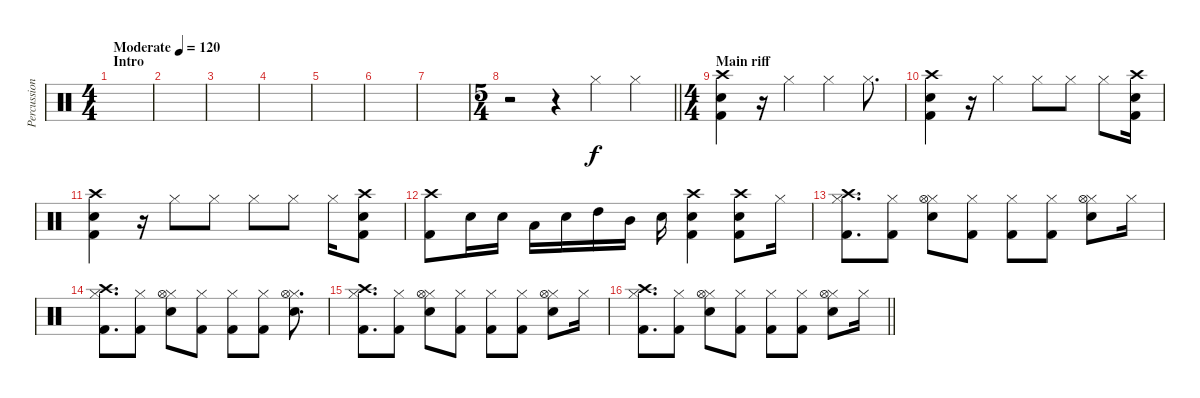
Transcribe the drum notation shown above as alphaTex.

\track ("Percussion" "Percussion") {instrument percussion}
\staff {score}
\articulation defaults
\ts (4 4)
\section ("" "Intro")
\tempo (120 "Moderate")
\clef neutral
\ks c
|
|
|
|
|
|
|
\ts (5 4)
\barLineRight lightlight
r.2 r.4 "Hi-Hat (closed)".4 "Hi-Hat (closed)".4 |
\ts (4 4)
\section ("" "Main riff")
("Crash high (hit)" "Electric Snare (hit)" "Kick (hit) 2").4 r.16 "Hi-Hat (closed)".4 "Hi-Hat (closed)".4 "Hi-Hat (closed)".8{d} |
("Electric Snare (hit)" "Crash high (hit)" "Kick (hit) 2").4 r.16 "Hi-Hat (closed)".4 "Hi-Hat (closed)".8 "Hi-Hat (closed)".8 "Hi-Hat (closed)".8 ("Crash high (hit)" "Electric Snare (hit)" "Kick (hit) 2").16 |
("Crash high (hit)" "Electric Snare (hit)" "Kick (hit) 2").4 r.16 "Hi-Hat (closed)".8 "Hi-Hat (closed)".8 "Hi-Hat (closed)".8 "Hi-Hat (closed)".8 "Hi-Hat (closed)".16 ("Electric Snare (hit)" "Crash high (hit)" "Kick (hit) 2").8 |
("Crash high (hit)" "Kick (hit) 2").8 "Electric Snare (hit)".16 "Electric Snare (hit)".16 "Low Tom (hit)".16 "Electric Snare (hit)".16 "High Tom (hit)".16 "Mid Tom (hit)".16 "Electric Snare (hit)".16 ("Crash high (hit)" "Electric Snare (hit)" "Kick (hit) 2").4 ("Electric Snare (hit)" "Crash high (hit)" "Kick (hit) 2").8 "Hi-Hat (closed)".16 |
("Hi-Hat (closed)" "Crash high (hit)" "Kick (hit) 2").8{d} ("Hi-Hat (closed)" "Kick (hit) 2").8 ("Hi-Hat (closed)" "Hi-Hat (open)" "Electric Snare (hit)").8 ("Hi-Hat (closed)" "Kick (hit) 2").8 ("Hi-Hat (closed)" "Kick (hit) 2").8 ("Hi-Hat (closed)" "Kick (hit) 2").8 ("Hi-Hat (closed)" "Hi-Hat (open)" "Electric Snare (hit)").8 "Hi-Hat (closed)".16 |
("Hi-Hat (closed)" "Crash high (hit)" "Kick (hit) 2").8{d} ("Hi-Hat (closed)" "Kick (hit) 2").8 ("Hi-Hat (closed)" "Hi-Hat (open)" "Electric Snare (hit)").8 ("Hi-Hat (closed)" "Kick (hit) 2").8 ("Hi-Hat (closed)" "Kick (hit) 2").8 ("Hi-Hat (closed)" "Kick (hit) 2").8 ("Hi-Hat (closed)" "Hi-Hat (open)" "Electric Snare (hit)").8{d} |
("Hi-Hat (closed)" "Crash high (hit)" "Kick (hit) 2").8{d} ("Hi-Hat (closed)" "Kick (hit) 2").8 ("Hi-Hat (closed)" "Hi-Hat (open)" "Electric Snare (hit)").8 ("Hi-Hat (closed)" "Kick (hit) 2").8 ("Hi-Hat (closed)" "Kick (hit) 2").8 ("Hi-Hat (closed)" "Kick (hit) 2").8 ("Hi-Hat (closed)" "Hi-Hat (open)" "Electric Snare (hit)").8 "Hi-Hat (closed)".16 |
\barLineRight lightlight
("Hi-Hat (closed)" "Crash high (hit)" "Kick (hit) 2").8{d} ("Hi-Hat (closed)" "Kick (hit) 2").8 ("Hi-Hat (closed)" "Hi-Hat (open)" "Electric Snare (hit)").8 ("Hi-Hat (closed)" "Kick (hit) 2").8 ("Hi-Hat (closed)" "Kick (hit) 2").8 ("Hi-Hat (closed)" "Kick (hit) 2").8 ("Hi-Hat (closed)" "Hi-Hat (open)" "Electric Snare (hit)").8 "Hi-Hat (closed)".16
